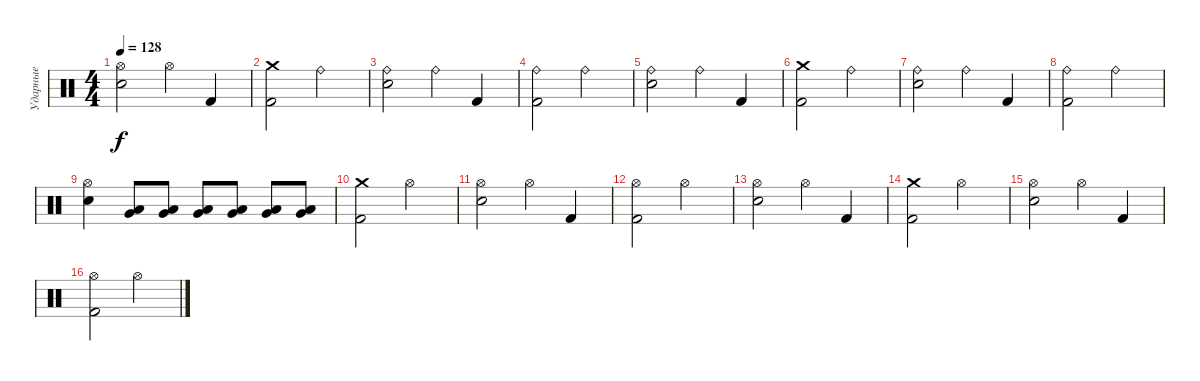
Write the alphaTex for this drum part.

\track ("Ударные" "Ударные") {instrument percussion}
\staff {score}
\articulation defaults
\ts (4 4)
\tempo 128
\clef neutral
\ks c
("Hi-Hat (open)" "Snare (hit) 2").2{dy f} "Hi-Hat (open)".4 "Kick (hit) 2".4 |
("Crash medium (hit)" "Kick (hit) 2").2 "Ride (bell)".2 |
("Ride (bell)" "Snare (hit) 2").2 "Ride (bell)".4 "Kick (hit) 2".4 |
("Ride (bell)" "Kick (hit) 2").2 "Ride (bell)".2 |
("Ride (bell)" "Snare (hit) 2").2 "Ride (bell)".4 "Kick (hit) 2".4 |
("Crash medium (hit)" "Kick (hit) 2").2 "Ride (bell)".2 |
("Ride (bell)" "Snare (hit) 2").2 "Ride (bell)".4 "Kick (hit) 2".4 |
("Ride (bell)" "Kick (hit) 2").2 "Ride (bell)".2 |
("Hi-Hat (open)" "Snare (hit) 2").4 ("Very Low Tom (hit)" "Low Tom (hit)").8{volume 8} ("Very Low Tom (hit)" "Low Tom (hit)").8{volume 13} ("Very Low Tom (hit)" "Low Tom (hit)").8 ("Very Low Tom (hit)" "Low Tom (hit)").8 ("Very Low Tom (hit)" "Low Tom (hit)").8 ("Very Low Tom (hit)" "Low Tom (hit)").8 |
("Crash medium (hit)" "Kick (hit) 2").2 "Hi-Hat (open)".2 |
("Hi-Hat (open)" "Snare (hit) 2").2 "Hi-Hat (open)".4 "Kick (hit) 2".4 |
("Hi-Hat (open)" "Kick (hit) 2").2 "Hi-Hat (open)".2 |
("Hi-Hat (open)" "Snare (hit) 2").2 "Hi-Hat (open)".4 "Kick (hit) 2".4 |
("Crash medium (hit)" "Kick (hit) 2").2 "Hi-Hat (open)".2 |
("Hi-Hat (open)" "Snare (hit) 2").2 "Hi-Hat (open)".4 "Kick (hit) 2".4 |
("Hi-Hat (open)" "Kick (hit) 2").2 "Hi-Hat (open)".2
